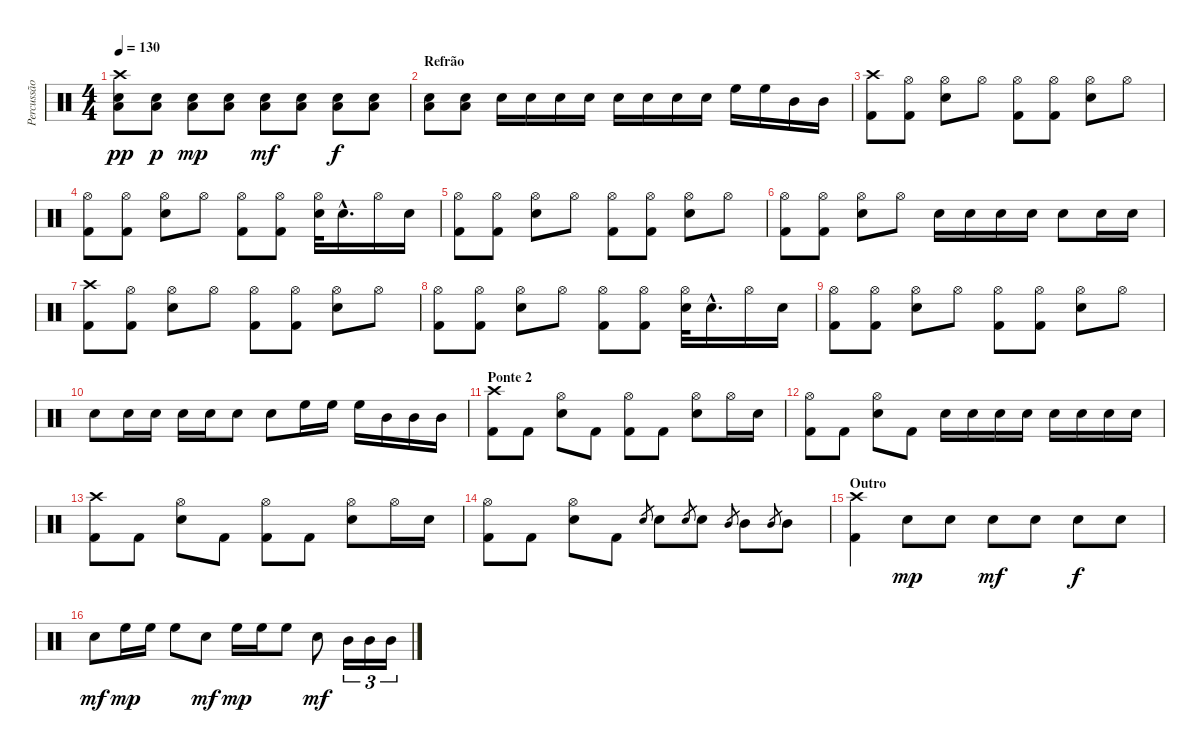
\track ("Percussão" "Percussão") {instrument percussion}
\staff {score}
\articulation defaults
\ts (4 4)
\tempo 130
\clef neutral
\ks c
("Crash high (hit)" "Electric Snare (hit)" "Low Tom (hit)").8{dy pp} ("Electric Snare (hit)" "Low Tom (hit)").8{dy p} ("Electric Snare (hit)" "Low Tom (hit)").8{dy mp} ("Electric Snare (hit)" "Low Tom (hit)").8 ("Electric Snare (hit)" "Low Tom (hit)").8{dy mf} ("Electric Snare (hit)" "Low Tom (hit)").8 ("Electric Snare (hit)" "Low Tom (hit)").8{dy f} ("Electric Snare (hit)" "Low Tom (hit)").8 |
\section ("" "Refrão")
("Electric Snare (hit)" "Low Tom (hit)").8 ("Electric Snare (hit)" "Low Tom (hit)").8 "Electric Snare (hit)".16 "Electric Snare (hit)".16 "Electric Snare (hit)".16 "Electric Snare (hit)".16 "Electric Snare (hit)".16 "Electric Snare (hit)".16 "Electric Snare (hit)".16 "Electric Snare (hit)".16 "High Floor Tom (hit)".16 "High Floor Tom (hit)".16 "Mid Tom (hit)".16 "Mid Tom (hit)".16 |
("Crash high (hit)" "Kick (hit) 2").8 ("Hi-Hat (open)" "Kick (hit) 2").8 ("Hi-Hat (open)" "Electric Snare (hit)").8 "Hi-Hat (open)".8 ("Hi-Hat (open)" "Kick (hit) 2").8 ("Hi-Hat (open)" "Kick (hit) 2").8 ("Hi-Hat (open)" "Electric Snare (hit)").8 "Hi-Hat (open)".8 |
("Hi-Hat (open)" "Kick (hit) 2").8 ("Hi-Hat (open)" "Kick (hit) 2").8 ("Hi-Hat (open)" "Electric Snare (hit)").8 "Hi-Hat (open)".8 ("Hi-Hat (open)" "Kick (hit) 2").8 ("Hi-Hat (open)" "Kick (hit) 2").8 ("Hi-Hat (open)" "Electric Snare (hit)").32 "Electric Snare (hit)"{hac}.16{d} "Hi-Hat (open)".16 "Electric Snare (hit)".16 |
("Hi-Hat (open)" "Kick (hit) 2").8 ("Hi-Hat (open)" "Kick (hit) 2").8 ("Hi-Hat (open)" "Electric Snare (hit)").8 "Hi-Hat (open)".8 ("Hi-Hat (open)" "Kick (hit) 2").8 ("Hi-Hat (open)" "Kick (hit) 2").8 ("Hi-Hat (open)" "Electric Snare (hit)").8 "Hi-Hat (open)".8 |
("Hi-Hat (open)" "Kick (hit) 2").8 ("Hi-Hat (open)" "Kick (hit) 2").8 ("Hi-Hat (open)" "Electric Snare (hit)").8 "Hi-Hat (open)".8 "Electric Snare (hit)".16 "Electric Snare (hit)".16 "Electric Snare (hit)".16 "Electric Snare (hit)".16 "Electric Snare (hit)".8 "Electric Snare (hit)".16 "Electric Snare (hit)".16 |
("Crash high (hit)" "Kick (hit) 2").8 ("Hi-Hat (open)" "Kick (hit) 2").8 ("Hi-Hat (open)" "Electric Snare (hit)").8 "Hi-Hat (open)".8 ("Hi-Hat (open)" "Kick (hit) 2").8 ("Hi-Hat (open)" "Kick (hit) 2").8 ("Hi-Hat (open)" "Electric Snare (hit)").8 "Hi-Hat (open)".8 |
("Hi-Hat (open)" "Kick (hit) 2").8 ("Hi-Hat (open)" "Kick (hit) 2").8 ("Hi-Hat (open)" "Electric Snare (hit)").8 "Hi-Hat (open)".8 ("Hi-Hat (open)" "Kick (hit) 2").8 ("Hi-Hat (open)" "Kick (hit) 2").8 ("Hi-Hat (open)" "Electric Snare (hit)").32 "Electric Snare (hit)"{hac}.16{d} "Hi-Hat (open)".16 "Electric Snare (hit)".16 |
("Hi-Hat (open)" "Kick (hit) 2").8 ("Hi-Hat (open)" "Kick (hit) 2").8 ("Hi-Hat (open)" "Electric Snare (hit)").8 "Hi-Hat (open)".8 ("Hi-Hat (open)" "Kick (hit) 2").8 ("Hi-Hat (open)" "Kick (hit) 2").8 ("Hi-Hat (open)" "Electric Snare (hit)").8 "Hi-Hat (open)".8 |
"Electric Snare (hit)".8 "Electric Snare (hit)".16 "Electric Snare (hit)".16 "Electric Snare (hit)".16 "Electric Snare (hit)".16 "Electric Snare (hit)".8 "Electric Snare (hit)".8 "High Floor Tom (hit)".16 "High Floor Tom (hit)".16 "High Floor Tom (hit)".16 "Mid Tom (hit)".16 "Mid Tom (hit)".16 "Mid Tom (hit)".16 |
\section ("" "Ponte 2")
("Crash high (hit)" "Kick (hit) 2").8 "Kick (hit) 2".8 ("Hi-Hat (open)" "Electric Snare (hit)").8 "Kick (hit) 2".8 ("Hi-Hat (open)" "Kick (hit) 2").8 "Kick (hit) 2".8 ("Hi-Hat (open)" "Electric Snare (hit)").8 "Hi-Hat (open)".16 "Electric Snare (hit)".16 |
("Hi-Hat (open)" "Kick (hit) 2").8 "Kick (hit) 2".8 ("Hi-Hat (open)" "Electric Snare (hit)").8 "Kick (hit) 2".8 "Electric Snare (hit)".16 "Electric Snare (hit)".16 "Electric Snare (hit)".16 "Electric Snare (hit)".16 "Electric Snare (hit)".16 "Electric Snare (hit)".16 "Electric Snare (hit)".16 "Electric Snare (hit)".16 |
("Crash high (hit)" "Kick (hit) 2").8 "Kick (hit) 2".8 ("Hi-Hat (open)" "Electric Snare (hit)").8 "Kick (hit) 2".8 ("Hi-Hat (open)" "Kick (hit) 2").8 "Kick (hit) 2".8 ("Hi-Hat (open)" "Electric Snare (hit)").8 "Hi-Hat (open)".16 "Electric Snare (hit)".16 |
("Hi-Hat (open)" "Kick (hit) 2").8 "Kick (hit) 2".8 ("Hi-Hat (open)" "Electric Snare (hit)").8 "Kick (hit) 2".8 "Electric Snare (hit)".8{gr} "Electric Snare (hit)".8 "Electric Snare (hit)".8{gr} "Electric Snare (hit)".8 "Mid Tom (hit)".8{gr} "Mid Tom (hit)".8 "Mid Tom (hit)".8{gr} "Mid Tom (hit)".8 |
\section ("" "Outro")
("Crash high (hit)" "Kick (hit) 2").4 "Electric Snare (hit)".8{dy mp} "Electric Snare (hit)".8 "Electric Snare (hit)".8{dy mf} "Electric Snare (hit)".8 "Electric Snare (hit)".8{dy f} "Electric Snare (hit)".8 |
"Electric Snare (hit)".8{dy mf} "High Floor Tom (hit)".16{dy mp} "High Floor Tom (hit)".16 "High Floor Tom (hit)".8 "Electric Snare (hit)".8{dy mf} "High Floor Tom (hit)".16{dy mp} "High Floor Tom (hit)".16 "High Floor Tom (hit)".8 "Electric Snare (hit)".8{dy mf} "Mid Tom (hit)".16{tu (3 2)} "Mid Tom (hit)".16{tu (3 2)} "Mid Tom (hit)".16{tu (3 2)}
